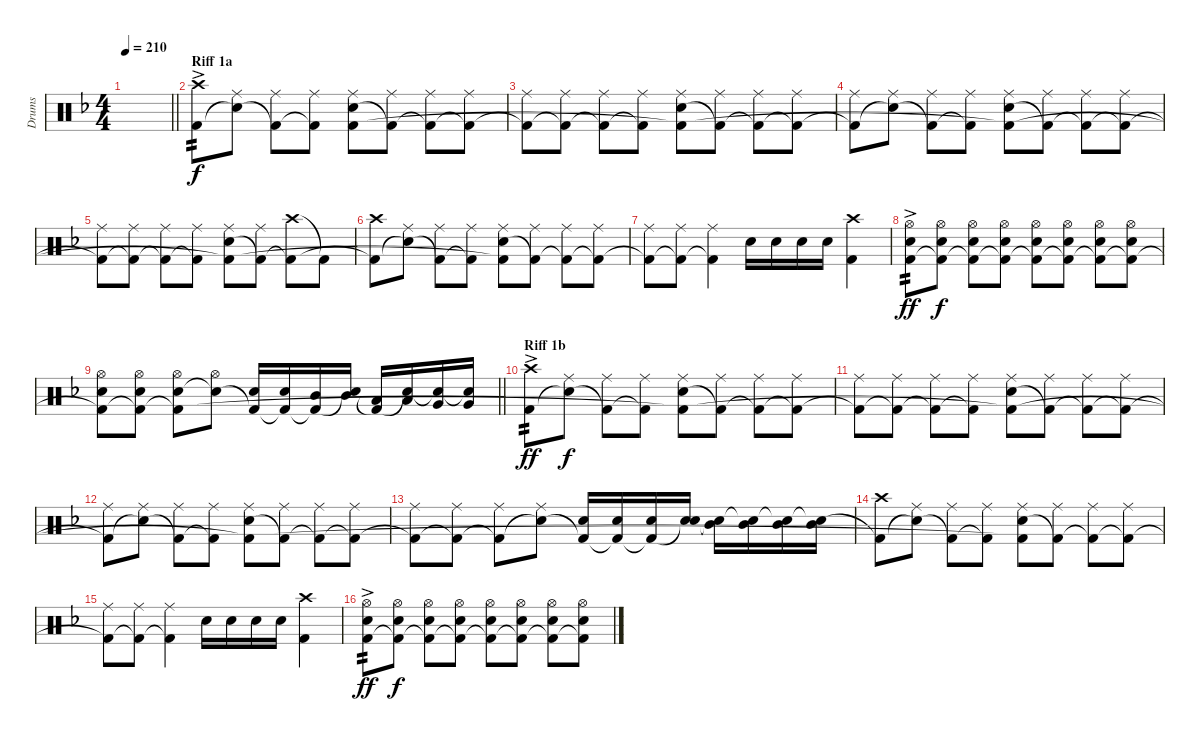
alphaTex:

\track ("Drums" "Drums") {instrument percussion}
\staff {score}
\articulation defaults
\ts (4 4)
\tempo 210
\clef neutral
\barLineRight lightlight
\ks dminor
|
\section ("" "Riff 1a")
("Crash high (hit)" "Kick (hit) 2"{ac}).8{tp 2} ("Ride (middle)" "Snare (hit)"{t}).8{dy f} ("Ride (middle)" "Kick (hit) 2"{t}).8 ("Ride (middle)" "Kick (hit) 2"{t}).8 ("Ride (middle)" "Electric Snare (hit)" "Kick (hit) 2").8 ("Ride (middle)" "Kick (hit) 2"{t}).8 ("Ride (middle)" "Kick (hit) 2"{t}).8 ("Ride (middle)" "Kick (hit) 2"{t}).8 |
("Ride (middle)" "Kick (hit) 2"{t}).8 ("Ride (middle)" "Kick (hit) 2"{t}).8 ("Ride (middle)" "Kick (hit) 2"{t}).8 ("Ride (middle)" "Kick (hit) 2"{t}).8 ("Ride (middle)" "Electric Snare (hit)" "Kick (hit) 2"{t}).8 ("Ride (middle)" "Kick (hit) 2"{t}).8 ("Ride (middle)" "Kick (hit) 2"{t}).8 ("Ride (middle)" "Kick (hit) 2"{t}).8 |
("Ride (middle)" "Kick (hit) 2"{t}).8 ("Ride (middle)" "Snare (hit)"{t}).8 ("Ride (middle)" "Kick (hit) 2"{t}).8 ("Ride (middle)" "Kick (hit) 2"{t}).8 ("Ride (middle)" "Electric Snare (hit)" "Kick (hit) 2"{t}).8 ("Ride (middle)" "Kick (hit) 2"{t}).8 ("Ride (middle)" "Kick (hit) 2"{t}).8 ("Ride (middle)" "Kick (hit) 2"{t}).8 |
("Ride (middle)" "Kick (hit) 2"{t}).8 ("Ride (middle)" "Kick (hit) 2"{t}).8 ("Ride (middle)" "Kick (hit) 2"{t}).8 ("Ride (middle)" "Kick (hit) 2"{t}).8 ("Ride (middle)" "Electric Snare (hit)" "Kick (hit) 2"{t}).8 ("Ride (middle)" "Kick (hit) 2"{t}).8 ("Crash high (hit)" "Kick (hit) 2"{t}).8 "Kick (hit) 2"{t}.8 |
("Crash high (hit)" "Kick (hit) 2"{t}).8 ("Ride (middle)" "Snare (hit)"{t}).8 ("Ride (middle)" "Kick (hit) 2"{t}).8 ("Ride (middle)" "Kick (hit) 2"{t}).8 ("Ride (middle)" "Electric Snare (hit)" "Kick (hit) 2"{t}).8 ("Ride (middle)" "Kick (hit) 2"{t}).8 ("Ride (middle)" "Kick (hit) 2"{t}).8 ("Ride (middle)" "Kick (hit) 2"{t}).8 |
("Ride (middle)" "Kick (hit) 2"{t}).8 ("Ride (middle)" "Kick (hit) 2"{t}).8 ("Ride (middle)" "Kick (hit) 2"{t}).4 "Electric Snare (hit)".16 "Electric Snare (hit)".16 "Electric Snare (hit)".16 "Electric Snare (hit)".16 ("Crash high (hit)" "Kick (hit) 2").4 |
("Hi-Hat (open)" "Electric Snare (hit)" "Kick (hit) 2"{ac}).8{tp 2 dy ff} ("Hi-Hat (open)" "Electric Snare (hit)" "Kick (hit) 2"{t}).8{dy f} ("Hi-Hat (open)" "Electric Snare (hit)" "Kick (hit) 2"{t}).8 ("Hi-Hat (open)" "Electric Snare (hit)" "Kick (hit) 2"{t}).8 ("Hi-Hat (open)" "Electric Snare (hit)" "Kick (hit) 2"{t}).8 ("Hi-Hat (open)" "Electric Snare (hit)" "Kick (hit) 2"{t}).8 ("Hi-Hat (open)" "Electric Snare (hit)" "Kick (hit) 2"{t}).8 ("Hi-Hat (open)" "Electric Snare (hit)" "Kick (hit) 2"{t}).8 |
\barLineRight lightlight
("Hi-Hat (open)" "Electric Snare (hit)" "Kick (hit) 2"{t}).8 ("Hi-Hat (open)" "Electric Snare (hit)" "Kick (hit) 2"{t}).8 ("Hi-Hat (open)" "Electric Snare (hit)" "Kick (hit) 2"{t}).8 ("Hi-Hat (open)" "Snare (hit)"{t}).8 ("Electric Snare (hit)" "Kick (hit) 2"{t}).16 ("Electric Snare (hit)" "Kick (hit) 2"{t}).16 ("Mid Tom (hit)" "Kick (hit) 2"{t}).16 ("Mid Tom (hit)" "Snare (hit)"{t}).16 ("Low Tom (hit)" "Kick (hit) 2"{t}).16 ("Low Tom (hit)" "Snare (hit)"{t}).16 ("Very Low Tom (hit)" "Snare (hit)"{t}).16 ("Very Low Tom (hit)" "Snare (hit)"{t}).16 |
\section ("" "Riff 1b")
("Crash high (hit)" "Kick (hit) 2"{ac}).8{tp 2 dy ff} ("Ride (middle)" "Snare (hit)"{t}).8{dy f} ("Ride (middle)" "Kick (hit) 2"{t}).8 ("Ride (middle)" "Kick (hit) 2"{t}).8 ("Ride (middle)" "Electric Snare (hit)" "Kick (hit) 2"{t}).8 ("Ride (middle)" "Kick (hit) 2"{t}).8 ("Ride (middle)" "Kick (hit) 2"{t}).8 ("Ride (middle)" "Kick (hit) 2"{t}).8 |
("Ride (middle)" "Kick (hit) 2"{t}).8 ("Ride (middle)" "Kick (hit) 2"{t}).8 ("Ride (middle)" "Kick (hit) 2"{t}).8 ("Ride (middle)" "Kick (hit) 2"{t}).8 ("Ride (middle)" "Electric Snare (hit)" "Kick (hit) 2"{t}).8 ("Ride (middle)" "Kick (hit) 2"{t}).8 ("Ride (middle)" "Kick (hit) 2"{t}).8 ("Ride (middle)" "Kick (hit) 2"{t}).8 |
("Ride (middle)" "Kick (hit) 2"{t}).8 ("Ride (middle)" "Snare (hit)"{t}).8 ("Ride (middle)" "Kick (hit) 2"{t}).8 ("Ride (middle)" "Kick (hit) 2"{t}).8 ("Ride (middle)" "Electric Snare (hit)" "Kick (hit) 2"{t}).8 ("Ride (middle)" "Kick (hit) 2"{t}).8 ("Ride (middle)" "Kick (hit) 2"{t}).8 ("Ride (middle)" "Kick (hit) 2"{t}).8 |
("Ride (middle)" "Kick (hit) 2"{t}).8 ("Ride (middle)" "Kick (hit) 2"{t}).8 ("Ride (middle)" "Kick (hit) 2"{t}).8 ("Ride (middle)" "Snare (hit)"{t}).8 ("Electric Snare (hit)" "Kick (hit) 2"{t}).16 ("Electric Snare (hit)" "Kick (hit) 2"{t}).16 ("Electric Snare (hit)" "Kick (hit) 2"{t}).16 ("Electric Snare (hit)" "Snare (hit)"{t}).16 ("Mid Tom (hit)" "Snare (hit)"{t}).16 ("Mid Tom (hit)" "Snare (hit)"{t}).16 ("Mid Tom (hit)" "Snare (hit)"{t}).16 ("Mid Tom (hit)" "Snare (hit)"{t}).16 |
("Crash high (hit)" "Kick (hit) 2"{t}).8 ("Ride (middle)" "Snare (hit)"{t}).8 ("Ride (middle)" "Kick (hit) 2"{t}).8 ("Ride (middle)" "Kick (hit) 2"{t}).8 ("Ride (middle)" "Electric Snare (hit)" "Kick (hit) 2"{t}).8 ("Ride (middle)" "Kick (hit) 2"{t}).8 ("Ride (middle)" "Kick (hit) 2"{t}).8 ("Ride (middle)" "Kick (hit) 2"{t}).8 |
("Ride (middle)" "Kick (hit) 2"{t}).8 ("Ride (middle)" "Kick (hit) 2"{t}).8 ("Ride (middle)" "Kick (hit) 2"{t}).4 "Electric Snare (hit)".16 "Electric Snare (hit)".16 "Electric Snare (hit)".16 "Electric Snare (hit)".16 ("Crash high (hit)" "Kick (hit) 2").4 |
("Hi-Hat (open)" "Electric Snare (hit)" "Kick (hit) 2"{ac}).8{tp 2 dy ff} ("Hi-Hat (open)" "Electric Snare (hit)" "Kick (hit) 2"{t}).8{dy f} ("Hi-Hat (open)" "Electric Snare (hit)" "Kick (hit) 2"{t}).8 ("Hi-Hat (open)" "Electric Snare (hit)" "Kick (hit) 2"{t}).8 ("Hi-Hat (open)" "Electric Snare (hit)" "Kick (hit) 2"{t}).8 ("Hi-Hat (open)" "Electric Snare (hit)" "Kick (hit) 2"{t}).8 ("Hi-Hat (open)" "Electric Snare (hit)" "Kick (hit) 2"{t}).8 ("Hi-Hat (open)" "Electric Snare (hit)" "Kick (hit) 2"{t}).8
